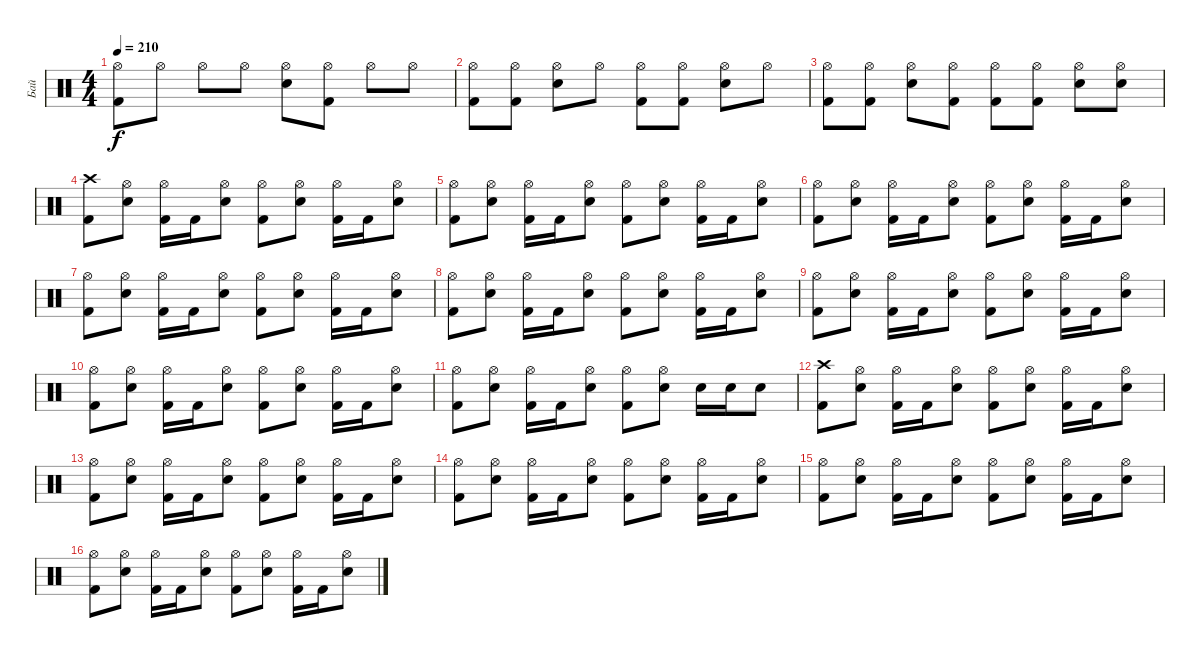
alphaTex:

\track ("Бай" "Бай") {instrument percussion}
\staff {score}
\articulation defaults
\ts (4 4)
\tempo 210
\clef neutral
\ks c
("Hi-Hat (open)" "Kick (hit) 2").8{dy f} "Hi-Hat (open)".8 "Hi-Hat (open)".8 "Hi-Hat (open)".8 ("Hi-Hat (open)" "Electric Snare (hit)").8 ("Hi-Hat (open)" "Kick (hit) 2").8 "Hi-Hat (open)".8 "Hi-Hat (open)".8 |
("Hi-Hat (open)" "Kick (hit) 2").8 ("Hi-Hat (open)" "Kick (hit) 2").8 ("Hi-Hat (open)" "Electric Snare (hit)").8 "Hi-Hat (open)".8 ("Hi-Hat (open)" "Kick (hit) 2").8 ("Hi-Hat (open)" "Kick (hit) 2").8 ("Hi-Hat (open)" "Electric Snare (hit)").8 "Hi-Hat (open)".8 |
("Hi-Hat (open)" "Kick (hit) 2").8 ("Hi-Hat (open)" "Kick (hit) 2").8 ("Hi-Hat (open)" "Electric Snare (hit)").8 ("Hi-Hat (open)" "Kick (hit) 2").8 ("Hi-Hat (open)" "Kick (hit) 2").8 ("Hi-Hat (open)" "Kick (hit) 2").8 ("Hi-Hat (open)" "Electric Snare (hit)").8 ("Hi-Hat (open)" "Electric Snare (hit)").8 |
("Crash high (hit)" "Kick (hit) 2").8 ("Hi-Hat (open)" "Electric Snare (hit)").8 ("Hi-Hat (open)" "Kick (hit) 2").16 "Kick (hit) 2".16 ("Hi-Hat (open)" "Electric Snare (hit)").8 ("Hi-Hat (open)" "Kick (hit) 2").8 ("Hi-Hat (open)" "Electric Snare (hit)").8 ("Hi-Hat (open)" "Kick (hit) 2").16 "Kick (hit) 2".16 ("Hi-Hat (open)" "Electric Snare (hit)").8 |
("Hi-Hat (open)" "Kick (hit) 2").8 ("Hi-Hat (open)" "Electric Snare (hit)").8 ("Hi-Hat (open)" "Kick (hit) 2").16 "Kick (hit) 2".16 ("Hi-Hat (open)" "Electric Snare (hit)").8 ("Hi-Hat (open)" "Kick (hit) 2").8 ("Hi-Hat (open)" "Electric Snare (hit)").8 ("Hi-Hat (open)" "Kick (hit) 2").16 "Kick (hit) 2".16 ("Hi-Hat (open)" "Electric Snare (hit)").8 |
("Hi-Hat (open)" "Kick (hit) 2").8 ("Hi-Hat (open)" "Electric Snare (hit)").8 ("Hi-Hat (open)" "Kick (hit) 2").16 "Kick (hit) 2".16 ("Hi-Hat (open)" "Electric Snare (hit)").8 ("Hi-Hat (open)" "Kick (hit) 2").8 ("Hi-Hat (open)" "Electric Snare (hit)").8 ("Hi-Hat (open)" "Kick (hit) 2").16 "Kick (hit) 2".16 ("Hi-Hat (open)" "Electric Snare (hit)").8 |
("Hi-Hat (open)" "Kick (hit) 2").8 ("Hi-Hat (open)" "Electric Snare (hit)").8 ("Hi-Hat (open)" "Kick (hit) 2").16 "Kick (hit) 2".16 ("Hi-Hat (open)" "Electric Snare (hit)").8 ("Hi-Hat (open)" "Kick (hit) 2").8 ("Hi-Hat (open)" "Electric Snare (hit)").8 ("Hi-Hat (open)" "Kick (hit) 2").16 "Kick (hit) 2".16 ("Hi-Hat (open)" "Electric Snare (hit)").8 |
("Hi-Hat (open)" "Kick (hit) 2").8 ("Hi-Hat (open)" "Electric Snare (hit)").8 ("Hi-Hat (open)" "Kick (hit) 2").16 "Kick (hit) 2".16 ("Hi-Hat (open)" "Electric Snare (hit)").8 ("Hi-Hat (open)" "Kick (hit) 2").8 ("Hi-Hat (open)" "Electric Snare (hit)").8 ("Hi-Hat (open)" "Kick (hit) 2").16 "Kick (hit) 2".16 ("Hi-Hat (open)" "Electric Snare (hit)").8 |
("Hi-Hat (open)" "Kick (hit) 2").8 ("Hi-Hat (open)" "Electric Snare (hit)").8 ("Hi-Hat (open)" "Kick (hit) 2").16 "Kick (hit) 2".16 ("Hi-Hat (open)" "Electric Snare (hit)").8 ("Hi-Hat (open)" "Kick (hit) 2").8 ("Hi-Hat (open)" "Electric Snare (hit)").8 ("Hi-Hat (open)" "Kick (hit) 2").16 "Kick (hit) 2".16 ("Hi-Hat (open)" "Electric Snare (hit)").8 |
("Hi-Hat (open)" "Kick (hit) 2").8 ("Hi-Hat (open)" "Electric Snare (hit)").8 ("Hi-Hat (open)" "Kick (hit) 2").16 "Kick (hit) 2".16 ("Hi-Hat (open)" "Electric Snare (hit)").8 ("Hi-Hat (open)" "Kick (hit) 2").8 ("Hi-Hat (open)" "Electric Snare (hit)").8 ("Hi-Hat (open)" "Kick (hit) 2").16 "Kick (hit) 2".16 ("Hi-Hat (open)" "Electric Snare (hit)").8 |
("Hi-Hat (open)" "Kick (hit) 2").8 ("Hi-Hat (open)" "Electric Snare (hit)").8 ("Hi-Hat (open)" "Kick (hit) 2").16 "Kick (hit) 2".16 ("Hi-Hat (open)" "Electric Snare (hit)").8 ("Hi-Hat (open)" "Kick (hit) 2").8 ("Hi-Hat (open)" "Electric Snare (hit)").8 "Electric Snare (hit)".16 "Electric Snare (hit)".16 "Electric Snare (hit)".8 |
("Crash high (hit)" "Kick (hit) 2").8 ("Hi-Hat (open)" "Electric Snare (hit)").8 ("Hi-Hat (open)" "Kick (hit) 2").16 "Kick (hit) 2".16 ("Hi-Hat (open)" "Electric Snare (hit)").8 ("Hi-Hat (open)" "Kick (hit) 2").8 ("Hi-Hat (open)" "Electric Snare (hit)").8 ("Hi-Hat (open)" "Kick (hit) 2").16 "Kick (hit) 2".16 ("Hi-Hat (open)" "Electric Snare (hit)").8 |
("Hi-Hat (open)" "Kick (hit) 2").8 ("Hi-Hat (open)" "Electric Snare (hit)").8 ("Hi-Hat (open)" "Kick (hit) 2").16 "Kick (hit) 2".16 ("Hi-Hat (open)" "Electric Snare (hit)").8 ("Hi-Hat (open)" "Kick (hit) 2").8 ("Hi-Hat (open)" "Electric Snare (hit)").8 ("Hi-Hat (open)" "Kick (hit) 2").16 "Kick (hit) 2".16 ("Hi-Hat (open)" "Electric Snare (hit)").8 |
("Hi-Hat (open)" "Kick (hit) 2").8 ("Hi-Hat (open)" "Electric Snare (hit)").8 ("Hi-Hat (open)" "Kick (hit) 2").16 "Kick (hit) 2".16 ("Hi-Hat (open)" "Electric Snare (hit)").8 ("Hi-Hat (open)" "Kick (hit) 2").8 ("Hi-Hat (open)" "Electric Snare (hit)").8 ("Hi-Hat (open)" "Kick (hit) 2").16 "Kick (hit) 2".16 ("Hi-Hat (open)" "Electric Snare (hit)").8 |
("Hi-Hat (open)" "Kick (hit) 2").8 ("Hi-Hat (open)" "Electric Snare (hit)").8 ("Hi-Hat (open)" "Kick (hit) 2").16 "Kick (hit) 2".16 ("Hi-Hat (open)" "Electric Snare (hit)").8 ("Hi-Hat (open)" "Kick (hit) 2").8 ("Hi-Hat (open)" "Electric Snare (hit)").8 ("Hi-Hat (open)" "Kick (hit) 2").16 "Kick (hit) 2".16 ("Hi-Hat (open)" "Electric Snare (hit)").8 |
("Hi-Hat (open)" "Kick (hit) 2").8 ("Hi-Hat (open)" "Electric Snare (hit)").8 ("Hi-Hat (open)" "Kick (hit) 2").16 "Kick (hit) 2".16 ("Hi-Hat (open)" "Electric Snare (hit)").8 ("Hi-Hat (open)" "Kick (hit) 2").8 ("Hi-Hat (open)" "Electric Snare (hit)").8 ("Hi-Hat (open)" "Kick (hit) 2").16 "Kick (hit) 2".16 ("Hi-Hat (open)" "Electric Snare (hit)").8
